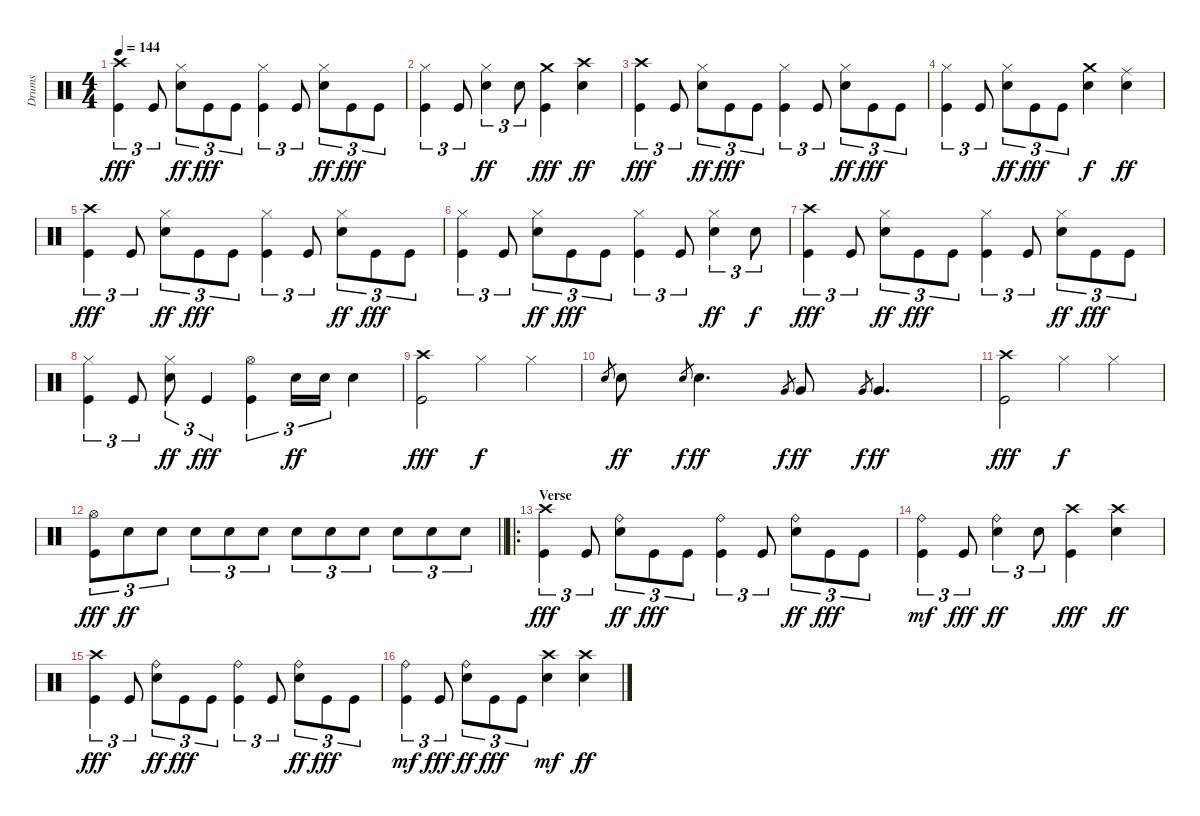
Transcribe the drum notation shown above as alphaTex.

\track ("Drums" "Drums") {instrument percussion}
\staff {score}
\articulation defaults
\ts (4 4)
\tempo 144
\clef neutral
\ks c
("Kick (hit)" "Crash high (hit)").4{tu (3 2) dy fff} "Kick (hit)".8{tu (3 2)} ("Hi-Hat (closed)" "Snare (hit) 2").8{tu (3 2) dy ff} "Kick (hit)".8{tu (3 2) dy fff} "Kick (hit)".8{tu (3 2)} ("Hi-Hat (closed)" "Kick (hit)").4{tu (3 2)} "Kick (hit)".8{tu (3 2)} ("Hi-Hat (closed)" "Snare (hit) 2").8{tu (3 2) dy ff} "Kick (hit)".8{tu (3 2) dy fff} "Kick (hit)".8{tu (3 2)} |
("Kick (hit)" "Hi-Hat (closed)").4{tu (3 2)} "Kick (hit)".8{tu (3 2)} ("Hi-Hat (closed)" "Snare (hit) 2").4{tu (3 2) dy ff} "Snare (hit) 2".8{tu (3 2)} ("Crash medium (hit)" "Kick (hit)").4{dy fff} ("Snare (hit) 2" "Crash high (hit)").4{dy ff} |
("Kick (hit)" "Crash high (hit)").4{tu (3 2) dy fff} "Kick (hit)".8{tu (3 2)} ("Hi-Hat (closed)" "Snare (hit) 2").8{tu (3 2) dy ff} "Kick (hit)".8{tu (3 2) dy fff} "Kick (hit)".8{tu (3 2)} ("Hi-Hat (closed)" "Kick (hit)").4{tu (3 2)} "Kick (hit)".8{tu (3 2)} ("Hi-Hat (closed)" "Snare (hit) 2").8{tu (3 2) dy ff} "Kick (hit)".8{tu (3 2) dy fff} "Kick (hit)".8{tu (3 2)} |
("Kick (hit)" "Hi-Hat (closed)").4{tu (3 2)} "Kick (hit)".8{tu (3 2)} ("Hi-Hat (closed)" "Snare (hit) 2").8{tu (3 2) dy ff} "Kick (hit)".8{tu (3 2) dy fff} "Kick (hit)".8{tu (3 2)} ("Crash medium (hit)" "Snare (hit) 2").4{dy f} ("Snare (hit) 2" "Ride (middle)").4{dy ff} |
("Kick (hit)" "Crash high (hit)").4{tu (3 2) dy fff} "Kick (hit)".8{tu (3 2)} ("Hi-Hat (closed)" "Snare (hit) 2").8{tu (3 2) dy ff} "Kick (hit)".8{tu (3 2) dy fff} "Kick (hit)".8{tu (3 2)} ("Hi-Hat (closed)" "Kick (hit)").4{tu (3 2)} "Kick (hit)".8{tu (3 2)} ("Hi-Hat (closed)" "Snare (hit) 2").8{tu (3 2) dy ff} "Kick (hit)".8{tu (3 2) dy fff} "Kick (hit)".8{tu (3 2)} |
("Kick (hit)" "Hi-Hat (closed)").4{tu (3 2)} "Kick (hit)".8{tu (3 2)} ("Hi-Hat (closed)" "Snare (hit) 2").8{tu (3 2) dy ff} "Kick (hit)".8{tu (3 2) dy fff} "Kick (hit)".8{tu (3 2)} ("Hi-Hat (closed)" "Kick (hit)").4{tu (3 2)} "Kick (hit)".8{tu (3 2)} ("Hi-Hat (closed)" "Snare (hit) 2").4{tu (3 2) dy ff} "Snare (hit) 2".8{tu (3 2) dy f} |
("Kick (hit)" "Crash high (hit)").4{tu (3 2) dy fff} "Kick (hit)".8{tu (3 2)} ("Hi-Hat (closed)" "Snare (hit) 2").8{tu (3 2) dy ff} "Kick (hit)".8{tu (3 2) dy fff} "Kick (hit)".8{tu (3 2)} ("Hi-Hat (closed)" "Kick (hit)").4{tu (3 2)} "Kick (hit)".8{tu (3 2)} ("Hi-Hat (closed)" "Snare (hit) 2").8{tu (3 2) dy ff} "Kick (hit)".8{tu (3 2) dy fff} "Kick (hit)".8{tu (3 2)} |
("Kick (hit)" "Hi-Hat (closed)").4{tu (3 2)} "Kick (hit)".8{tu (3 2)} ("Hi-Hat (closed)" "Snare (hit) 2").8{tu (3 2) dy ff} "Kick (hit)".4{tu (3 2) dy fff} ("Hi-Hat (open)" "Kick (hit)").4{tu (3 2)} "Snare (hit) 2".16{tu (3 2) dy ff} "Snare (hit) 2".16{tu (3 2)} "Snare (hit) 2".4 |
("Kick (hit)" "Crash high (hit)").2{dy fff} "Hi-Hat (closed)".4{dy f} "Hi-Hat (closed)".4 |
"Snare (hit) 2".8{gr} "Snare (hit) 2".8{dy ff} "Snare (hit) 2".8{gr dy f} "Snare (hit) 2".4{d dy ff} "Very Low Tom (hit)".8{gr dy f} "Very Low Tom (hit)".8{dy ff} "Very Low Tom (hit)".8{gr dy f} "Very Low Tom (hit)".4{d dy ff} |
("Kick (hit)" "Crash high (hit)").2{dy fff} "Hi-Hat (closed)".4{dy f} "Hi-Hat (closed)".4 |
\barLineRight lightlight
("Hi-Hat (open)" "Kick (hit)").8{tu (3 2) dy fff} "Snare (hit) 2".8{tu (3 2) dy ff} "Snare (hit) 2".8{tu (3 2)} "Snare (hit) 2".8{tu (3 2)} "Snare (hit) 2".8{tu (3 2)} "Snare (hit) 2".8{tu (3 2)} "Snare (hit) 2".8{tu (3 2)} "Snare (hit) 2".8{tu (3 2)} "Snare (hit) 2".8{tu (3 2)} "Snare (hit) 2".8{tu (3 2)} "Snare (hit) 2".8{tu (3 2)} "Snare (hit) 2".8{tu (3 2)} |
\ro
\section ("" "Verse")
("Kick (hit)" "Crash high (hit)").4{tu (3 2) dy fff} "Kick (hit)".8{tu (3 2)} ("Ride (bell)" "Snare (hit) 2").8{tu (3 2) dy ff} "Kick (hit)".8{tu (3 2) dy fff} "Kick (hit)".8{tu (3 2)} ("Ride (bell)" "Kick (hit)").4{tu (3 2)} "Kick (hit)".8{tu (3 2)} ("Ride (bell)" "Snare (hit) 2").8{tu (3 2) dy ff} "Kick (hit)".8{tu (3 2) dy fff} "Kick (hit)".8{tu (3 2)} |
("Kick (hit)" "Ride (bell)").4{tu (3 2) dy mf} "Kick (hit)".8{tu (3 2) dy fff} ("Ride (bell)" "Snare (hit) 2").4{tu (3 2) dy ff} "Snare (hit) 2".8{tu (3 2)} ("Crash high (hit)" "Kick (hit)").4{dy fff} ("Snare (hit) 2" "Crash high (hit)").4{dy ff} |
("Kick (hit)" "Crash high (hit)").4{tu (3 2) dy fff} "Kick (hit)".8{tu (3 2)} ("Ride (bell)" "Snare (hit) 2").8{tu (3 2) dy ff} "Kick (hit)".8{tu (3 2) dy fff} "Kick (hit)".8{tu (3 2)} ("Ride (bell)" "Kick (hit)").4{tu (3 2)} "Kick (hit)".8{tu (3 2)} ("Ride (bell)" "Snare (hit) 2").8{tu (3 2) dy ff} "Kick (hit)".8{tu (3 2) dy fff} "Kick (hit)".8{tu (3 2)} |
("Kick (hit)" "Ride (bell)").4{tu (3 2) dy mf} "Kick (hit)".8{tu (3 2) dy fff} ("Ride (bell)" "Snare (hit) 2").8{tu (3 2) dy ff} "Kick (hit)".8{tu (3 2) dy fff} "Kick (hit)".8{tu (3 2)} ("Crash high (hit)" "Snare (hit) 2").4{dy mf} ("Snare (hit) 2" "Crash high (hit)").4{dy ff}
